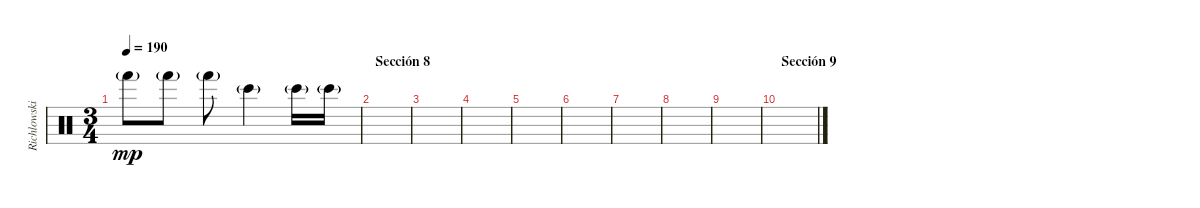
\track ("Richlowski y Dj Raff" "Richlowski") {instrument percussion}
\staff {score}
\articulation defaults
\ts (3 4)
\tempo 190
\clef neutral
\ks c "Hand (hit)"{g}.8{dy mp} "Hand (hit)"{g}.8 "Hand (hit)"{g}.8 "Bongo High (hit)"{g}.4 "Bongo High (hit)"{g}.16 "Bongo High (hit)"{g}.16
|
\section ("" "Sección 8")
|
|
|
|
|
|
|
|
\section ("" "Sección 9")
